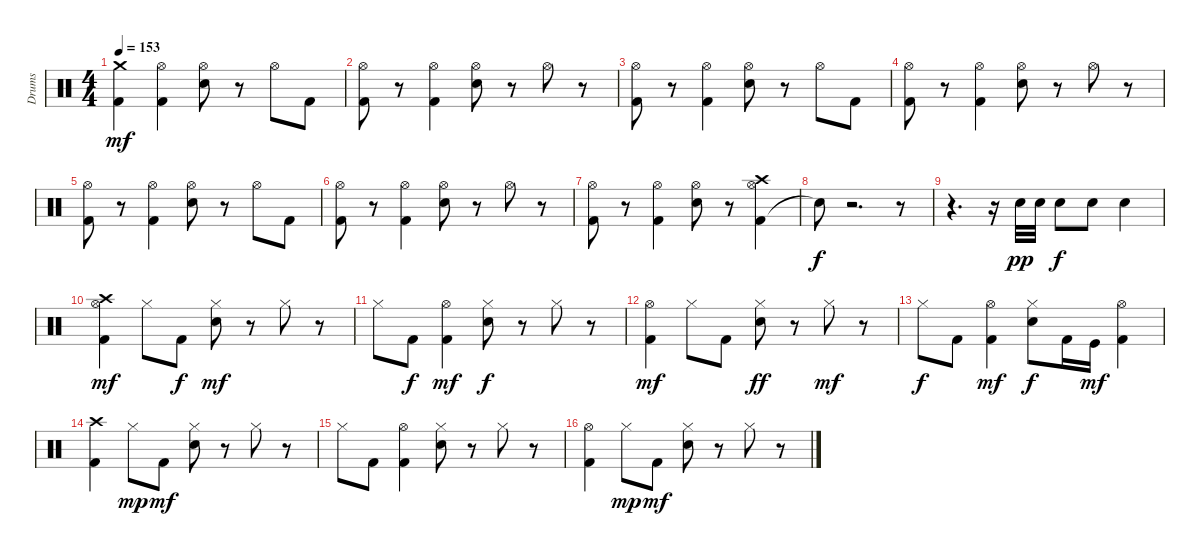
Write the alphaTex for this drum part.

\track ("Drums" "Drums") {instrument percussion}
\staff {score}
\articulation defaults
\ts (4 4)
\tempo 153
\clef neutral
\ks c
("Kick (hit) 2" "Crash medium (hit)").4{dy mf} ("Kick (hit) 2" "Hi-Hat (open)").4 ("Electric Snare (hit)" "Hi-Hat (open)").8 r.8 "Hi-Hat (open)".8 "Kick (hit) 2".8 |
("Kick (hit) 2" "Hi-Hat (open)").8 r.8 ("Kick (hit) 2" "Hi-Hat (open)").4 ("Electric Snare (hit)" "Hi-Hat (open)").8 r.8 "Hi-Hat (open)".8 r.8 |
("Kick (hit) 2" "Hi-Hat (open)").8 r.8 ("Kick (hit) 2" "Hi-Hat (open)").4 ("Electric Snare (hit)" "Hi-Hat (open)").8 r.8 "Hi-Hat (open)".8 "Kick (hit) 2".8 |
("Kick (hit) 2" "Hi-Hat (open)").8 r.8 ("Kick (hit) 2" "Hi-Hat (open)").4 ("Electric Snare (hit)" "Hi-Hat (open)").8 r.8 "Hi-Hat (open)".8 r.8 |
("Kick (hit) 2" "Hi-Hat (open)").8 r.8 ("Kick (hit) 2" "Hi-Hat (open)").4 ("Electric Snare (hit)" "Hi-Hat (open)").8 r.8 "Hi-Hat (open)".8 "Kick (hit) 2".8 |
("Kick (hit) 2" "Hi-Hat (open)").8 r.8 ("Kick (hit) 2" "Hi-Hat (open)").4 ("Electric Snare (hit)" "Hi-Hat (open)").8 r.8 "Hi-Hat (open)".8 r.8 |
("Kick (hit) 2" "Hi-Hat (open)").8 r.8 ("Kick (hit) 2" "Hi-Hat (open)").4 ("Electric Snare (hit)" "Hi-Hat (open)").8 r.8 ("Kick (hit) 2" "Hi-Hat (open)" "Crash high (hit)").4 |
"Snare (hit)"{t}.8{dy f} r.2{d} r.8 |
r.4{d} r.16 "Electric Snare (hit)".32{dy pp} "Electric Snare (hit)".32 "Electric Snare (hit)".8{dy f} "Electric Snare (hit)".8 "Electric Snare (hit)".4 |
("Kick (hit) 2" "Hi-Hat (open)" "Crash high (hit)").4{dy mf} "Hi-Hat (closed)".8 "Kick (hit) 2".8{dy f} ("Electric Snare (hit)" "Hi-Hat (closed)").8{dy mf} r.8 "Hi-Hat (closed)".8 r.8 |
"Hi-Hat (closed)".8 "Kick (hit) 2".8{dy f} ("Kick (hit) 2" "Hi-Hat (open)").4{dy mf} ("Electric Snare (hit)" "Hi-Hat (closed)").8{dy f} r.8 "Hi-Hat (closed)".8 r.8 |
("Kick (hit) 2" "Hi-Hat (open)").4{dy mf} "Hi-Hat (closed)".8 "Kick (hit) 2".8 ("Electric Snare (hit)" "Hi-Hat (closed)").8{dy ff} r.8 "Hi-Hat (closed)".8{dy mf} r.8 |
"Hi-Hat (closed)".8{dy f} "Kick (hit) 2".8 ("Kick (hit) 2" "Hi-Hat (open)").4{dy mf} ("Electric Snare (hit)" "Hi-Hat (closed)").8{dy f} "Kick (hit) 2".16 "Kick (hit)".16{dy mf} ("Kick (hit) 2" "Hi-Hat (open)").4 |
("Kick (hit) 2" "Crash high (hit)").4 "Hi-Hat (closed)".8{dy mp} "Kick (hit) 2".8{dy mf} ("Electric Snare (hit)" "Hi-Hat (closed)").8 r.8 "Hi-Hat (closed)".8 r.8 |
"Hi-Hat (closed)".8 "Kick (hit) 2".8 ("Kick (hit) 2" "Hi-Hat (open)").4 ("Electric Snare (hit)" "Hi-Hat (closed)").8 r.8 "Hi-Hat (closed)".8 r.8 |
("Kick (hit) 2" "Hi-Hat (open)").4 "Hi-Hat (closed)".8{dy mp} "Kick (hit) 2".8{dy mf} ("Electric Snare (hit)" "Hi-Hat (closed)").8 r.8 "Hi-Hat (closed)".8 r.8
